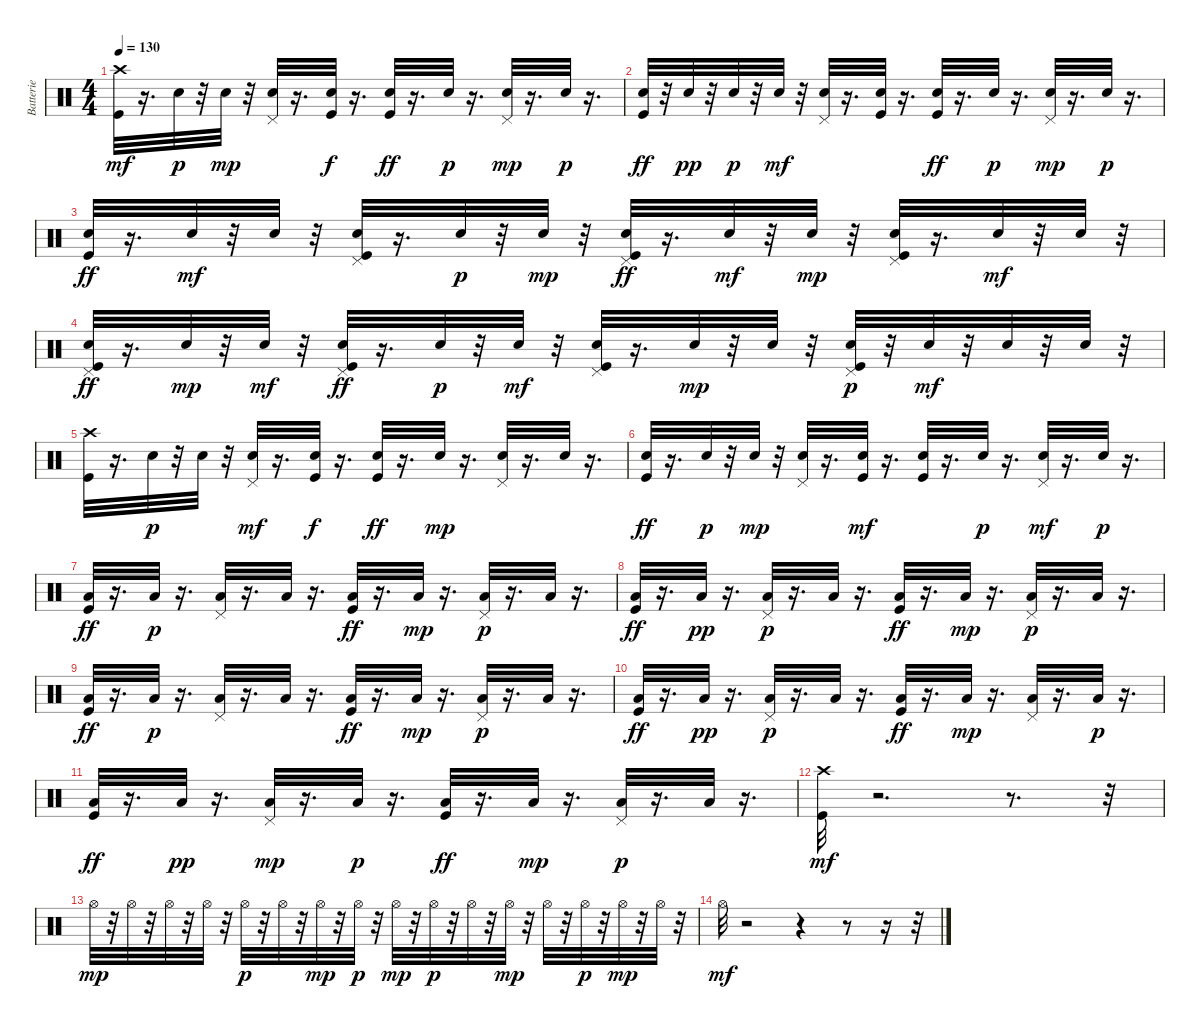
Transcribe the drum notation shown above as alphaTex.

\track ("Batterie" "Batterie") {instrument percussion}
\staff {score}
\articulation defaults
\ts (4 4)
\tempo 130
\clef neutral
\ks c
("Kick (hit)" "Crash high (hit)").32{dy mf} r.16{d} "Electric Snare (hit)".32{dy p} r.32 "Electric Snare (hit)".32{dy mp} r.32 ("Pedal Hi-Hat (hit)" "Electric Snare (hit)").32 r.16{d} ("Kick (hit)" "Electric Snare (hit)").32{dy f} r.16{d} ("Kick (hit)" "Electric Snare (hit)").32{dy ff} r.16{d} "Electric Snare (hit)".32{dy p} r.16{d} ("Electric Snare (hit)" "Pedal Hi-Hat (hit)").32{dy mp} r.16{d} "Electric Snare (hit)".32{dy p} r.16{d} |
("Electric Snare (hit)" "Kick (hit)").32{dy ff} r.32 "Electric Snare (hit)".32{dy pp} r.32 "Electric Snare (hit)".32{dy p} r.32 "Electric Snare (hit)".32{dy mf} r.32 ("Pedal Hi-Hat (hit)" "Electric Snare (hit)").32 r.16{d} ("Electric Snare (hit)" "Kick (hit)").32 r.16{d} ("Kick (hit)" "Electric Snare (hit)").32{dy ff} r.16{d} "Electric Snare (hit)".32{dy p} r.16{d} ("Electric Snare (hit)" "Pedal Hi-Hat (hit)").32{dy mp} r.16{d} "Electric Snare (hit)".32{dy p} r.16{d} |
("Electric Snare (hit)" "Kick (hit)").32{dy ff} r.16{d} "Electric Snare (hit)".32{dy mf} r.32 "Electric Snare (hit)".32 r.32 ("Pedal Hi-Hat (hit)" "Kick (hit)" "Electric Snare (hit)").32 r.16{d} "Electric Snare (hit)".32{dy p} r.32 "Electric Snare (hit)".32{dy mp} r.32 ("Pedal Hi-Hat (hit)" "Electric Snare (hit)" "Kick (hit)").32{dy ff} r.16{d} "Electric Snare (hit)".32{dy mf} r.32 "Electric Snare (hit)".32{dy mp} r.32 ("Kick (hit)" "Pedal Hi-Hat (hit)" "Electric Snare (hit)").32 r.16{d} "Electric Snare (hit)".32{dy mf} r.32 "Electric Snare (hit)".32 r.32 |
("Pedal Hi-Hat (hit)" "Electric Snare (hit)" "Kick (hit)").32{dy ff} r.16{d} "Electric Snare (hit)".32{dy mp} r.32 "Electric Snare (hit)".32{dy mf} r.32 ("Pedal Hi-Hat (hit)" "Electric Snare (hit)" "Kick (hit)").32{dy ff} r.16{d} "Electric Snare (hit)".32{dy p} r.32 "Electric Snare (hit)".32{dy mf} r.32 ("Pedal Hi-Hat (hit)" "Kick (hit)" "Electric Snare (hit)").32 r.16{d} "Electric Snare (hit)".32{dy mp} r.32 "Electric Snare (hit)".32 r.32 ("Electric Snare (hit)" "Pedal Hi-Hat (hit)" "Kick (hit)").32{dy p} r.32 "Electric Snare (hit)".32{dy mf} r.32 "Electric Snare (hit)".32 r.32 "Electric Snare (hit)".32 r.32 |
("Kick (hit)" "Crash high (hit)").32 r.16{d} "Electric Snare (hit)".32{dy p} r.32 "Electric Snare (hit)".32 r.32 ("Pedal Hi-Hat (hit)" "Electric Snare (hit)").32{dy mf} r.16{d} ("Kick (hit)" "Electric Snare (hit)").32{dy f} r.16{d} ("Electric Snare (hit)" "Kick (hit)").32{dy ff} r.16{d} "Electric Snare (hit)".32{dy mp} r.16{d} ("Pedal Hi-Hat (hit)" "Electric Snare (hit)").32 r.16{d} "Electric Snare (hit)".32 r.16{d} |
("Kick (hit)" "Electric Snare (hit)").32{dy ff} r.16{d} "Electric Snare (hit)".32{dy p} r.32 "Electric Snare (hit)".32{dy mp} r.32 ("Pedal Hi-Hat (hit)" "Electric Snare (hit)").32 r.16{d} ("Kick (hit)" "Electric Snare (hit)").32{dy mf} r.16{d} ("Kick (hit)" "Electric Snare (hit)").32 r.16{d} "Electric Snare (hit)".32{dy p} r.16{d} ("Electric Snare (hit)" "Pedal Hi-Hat (hit)").32{dy mf} r.16{d} "Electric Snare (hit)".32{dy p} r.16{d} |
("Kick (hit)" "Low Tom (hit)").32{dy ff} r.16{d} "Low Tom (hit)".32{dy p} r.16{d} ("Low Tom (hit)" "Pedal Hi-Hat (hit)").32 r.16{d} "Low Tom (hit)".32 r.16{d} ("Kick (hit)" "Low Tom (hit)").32{dy ff} r.16{d} "Low Tom (hit)".32{dy mp} r.16{d} ("Pedal Hi-Hat (hit)" "Low Tom (hit)").32{dy p} r.16{d} "Low Tom (hit)".32 r.16{d} |
("Low Tom (hit)" "Kick (hit)").32{dy ff} r.16{d} "Low Tom (hit)".32{dy pp} r.16{d} ("Pedal Hi-Hat (hit)" "Low Tom (hit)").32{dy p} r.16{d} "Low Tom (hit)".32 r.16{d} ("Low Tom (hit)" "Kick (hit)").32{dy ff} r.16{d} "Low Tom (hit)".32{dy mp} r.16{d} ("Pedal Hi-Hat (hit)" "Low Tom (hit)").32{dy p} r.16{d} "Low Tom (hit)".32 r.16{d} |
("Kick (hit)" "Low Tom (hit)").32{dy ff} r.16{d} "Low Tom (hit)".32{dy p} r.16{d} ("Low Tom (hit)" "Pedal Hi-Hat (hit)").32 r.16{d} "Low Tom (hit)".32 r.16{d} ("Kick (hit)" "Low Tom (hit)").32{dy ff} r.16{d} "Low Tom (hit)".32{dy mp} r.16{d} ("Pedal Hi-Hat (hit)" "Low Tom (hit)").32{dy p} r.16{d} "Low Tom (hit)".32 r.16{d} |
("Kick (hit)" "Low Tom (hit)").32{dy ff} r.16{d} "Low Tom (hit)".32{dy pp} r.16{d} ("Pedal Hi-Hat (hit)" "Low Tom (hit)").32{dy p} r.16{d} "Low Tom (hit)".32 r.16{d} ("Low Tom (hit)" "Kick (hit)").32{dy ff} r.16{d} "Low Tom (hit)".32{dy mp} r.16{d} ("Low Tom (hit)" "Pedal Hi-Hat (hit)").32 r.16{d} "Low Tom (hit)".32{dy p} r.16{d} |
("Kick (hit)" "Low Tom (hit)").32{dy ff} r.16{d} "Low Tom (hit)".32{dy pp} r.16{d} ("Low Tom (hit)" "Pedal Hi-Hat (hit)").32{dy mp} r.16{d} "Low Tom (hit)".32{dy p} r.16{d} ("Low Tom (hit)" "Kick (hit)").32{dy ff} r.16{d} "Low Tom (hit)".32{dy mp} r.16{d} ("Pedal Hi-Hat (hit)" "Low Tom (hit)").32{dy p} r.16{d} "Low Tom (hit)".32 r.16{d} |
("Kick (hit)" "Crash high (hit)").32{dy mf} r.2{d} r.8{d} r.32 |
"Hi-Hat (open)".32{dy mp} r.32 "Hi-Hat (open)".32 r.32 "Hi-Hat (open)".32 r.32 "Hi-Hat (open)".32 r.32 "Hi-Hat (open)".32{dy p} r.32 "Hi-Hat (open)".32 r.32 "Hi-Hat (open)".32{dy mp} r.32 "Hi-Hat (open)".32{dy p} r.32 "Hi-Hat (open)".32{dy mp} r.32 "Hi-Hat (open)".32{dy p} r.32 "Hi-Hat (open)".32 r.32 "Hi-Hat (open)".32{dy mp} r.32 "Hi-Hat (open)".32 r.32 "Hi-Hat (open)".32{dy p} r.32 "Hi-Hat (open)".32{dy mp} r.32 "Hi-Hat (open)".32 r.32 |
"Hi-Hat (open)".32{dy mf} r.2 r.4 r.8 r.16 r.32
